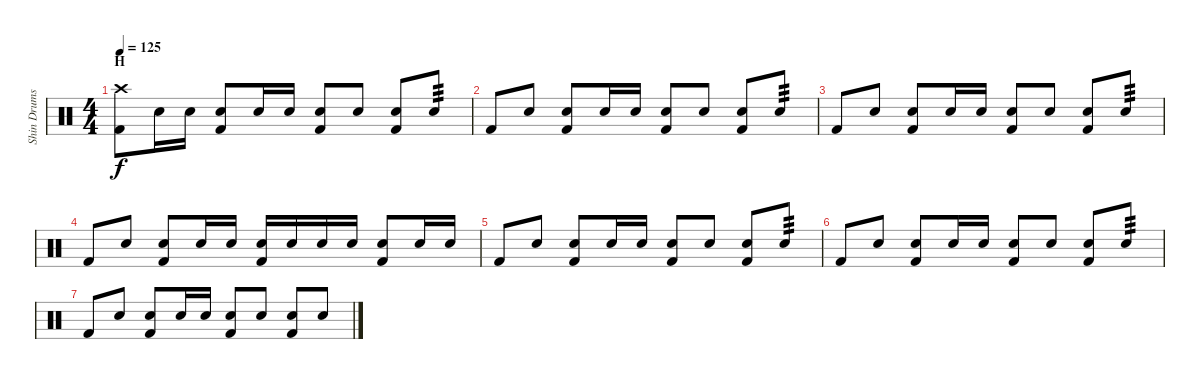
\track ("Shin Drums" "Shin Drums") {instrument percussion}
\staff {score}
\articulation defaults
\ts (4 4)
\section ("" "H")
\tempo 125
\clef neutral
\ks c
("Crash high (hit)" "Kick (hit) 2").8{dy f} "Snare (hit) 2".16 "Snare (hit) 2".16 ("Snare (hit) 2" "Kick (hit) 2").8 "Snare (hit) 2".16 "Snare (hit) 2".16 ("Snare (hit) 2" "Kick (hit) 2").8 "Snare (hit) 2".8 ("Snare (hit) 2" "Kick (hit) 2").8 "Snare (hit) 2".8{tp 3} |
"Kick (hit) 2".8 "Snare (hit) 2".8 ("Snare (hit) 2" "Kick (hit) 2").8 "Snare (hit) 2".16 "Snare (hit) 2".16 ("Snare (hit) 2" "Kick (hit) 2").8 "Snare (hit) 2".8 ("Snare (hit) 2" "Kick (hit) 2").8 "Snare (hit) 2".8{tp 3} |
"Kick (hit) 2".8 "Snare (hit) 2".8 ("Snare (hit) 2" "Kick (hit) 2").8 "Snare (hit) 2".16 "Snare (hit) 2".16 ("Snare (hit) 2" "Kick (hit) 2").8 "Snare (hit) 2".8 ("Snare (hit) 2" "Kick (hit) 2").8 "Snare (hit) 2".8{tp 3} |
"Kick (hit) 2".8 "Snare (hit) 2".8 ("Snare (hit) 2" "Kick (hit) 2").8 "Snare (hit) 2".16 "Snare (hit) 2".16 ("Snare (hit) 2" "Kick (hit) 2").16 "Snare (hit) 2".16 "Snare (hit) 2".16 "Snare (hit) 2".16 ("Snare (hit) 2" "Kick (hit) 2").8 "Snare (hit) 2".16 "Snare (hit) 2".16 |
"Kick (hit) 2".8 "Snare (hit) 2".8 ("Snare (hit) 2" "Kick (hit) 2").8 "Snare (hit) 2".16 "Snare (hit) 2".16 ("Snare (hit) 2" "Kick (hit) 2").8 "Snare (hit) 2".8 ("Snare (hit) 2" "Kick (hit) 2").8 "Snare (hit) 2".8{tp 3} |
"Kick (hit) 2".8 "Snare (hit) 2".8 ("Snare (hit) 2" "Kick (hit) 2").8 "Snare (hit) 2".16 "Snare (hit) 2".16 ("Snare (hit) 2" "Kick (hit) 2").8 "Snare (hit) 2".8 ("Snare (hit) 2" "Kick (hit) 2").8 "Snare (hit) 2".8{tp 3} |
"Kick (hit) 2".8 "Snare (hit) 2".8 ("Snare (hit) 2" "Kick (hit) 2").8 "Snare (hit) 2".16 "Snare (hit) 2".16 ("Snare (hit) 2" "Kick (hit) 2").8 "Snare (hit) 2".8 ("Snare (hit) 2" "Kick (hit) 2").8 "Snare (hit) 2".8
